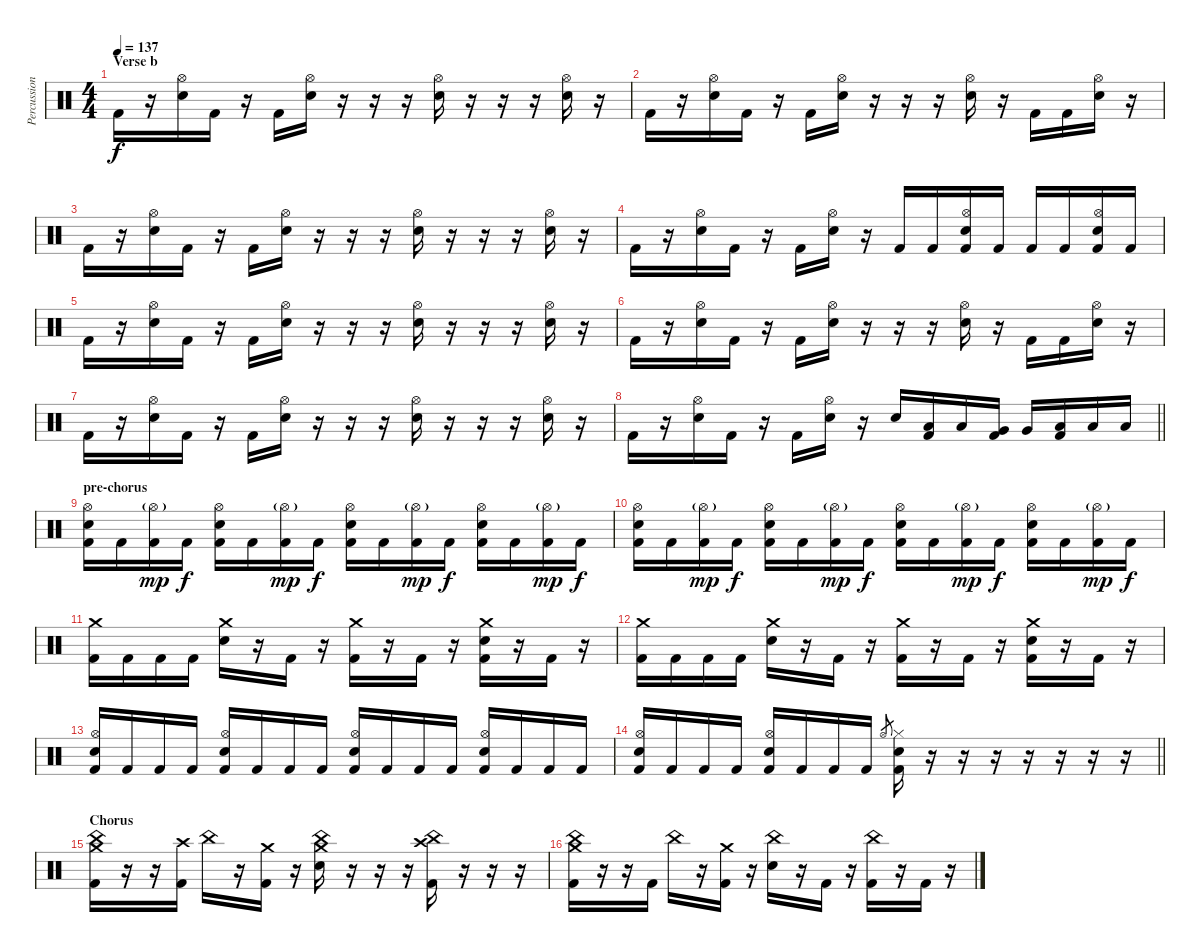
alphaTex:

\track ("Percussion" "Percussion") {instrument percussion}
\staff {score}
\articulation defaults
\ts (4 4)
\section ("" "Verse b")
\tempo 137
\clef neutral
\ks c "Kick (hit) 2".16{dy f}
r.16 ("Hi-Hat (open)" "Electric Snare (hit)").16 "Kick (hit) 2".16 r.16 "Kick (hit) 2".16 ("Hi-Hat (open)" "Electric Snare (hit)").16 r.16 r.16 r.16 ("Hi-Hat (open)" "Electric Snare (hit)").16 r.16 r.16 r.16 ("Hi-Hat (open)" "Electric Snare (hit)").16 r.16 |
"Kick (hit) 2".16 r.16 ("Hi-Hat (open)" "Electric Snare (hit)").16 "Kick (hit) 2".16 r.16 "Kick (hit) 2".16 ("Hi-Hat (open)" "Electric Snare (hit)").16 r.16 r.16 r.16 ("Hi-Hat (open)" "Electric Snare (hit)").16 r.16 "Kick (hit) 2".16 "Kick (hit) 2".16 ("Hi-Hat (open)" "Electric Snare (hit)").16 r.16 |
"Kick (hit) 2".16 r.16 ("Hi-Hat (open)" "Electric Snare (hit)").16 "Kick (hit) 2".16 r.16 "Kick (hit) 2".16 ("Hi-Hat (open)" "Electric Snare (hit)").16 r.16 r.16 r.16 ("Hi-Hat (open)" "Electric Snare (hit)").16 r.16 r.16 r.16 ("Hi-Hat (open)" "Electric Snare (hit)").16 r.16 |
"Kick (hit) 2".16 r.16 ("Hi-Hat (open)" "Electric Snare (hit)").16 "Kick (hit) 2".16 r.16 "Kick (hit) 2".16 ("Hi-Hat (open)" "Electric Snare (hit)").16 r.16 "Kick (hit) 2".16 "Kick (hit) 2".16 ("Hi-Hat (open)" "Electric Snare (hit)" "Kick (hit) 2").16 "Kick (hit) 2".16 "Kick (hit) 2".16 "Kick (hit) 2".16 ("Hi-Hat (open)" "Electric Snare (hit)" "Kick (hit) 2").16 "Kick (hit) 2".16 |
"Kick (hit) 2".16 r.16 ("Hi-Hat (open)" "Electric Snare (hit)").16 "Kick (hit) 2".16 r.16 "Kick (hit) 2".16 ("Hi-Hat (open)" "Electric Snare (hit)").16 r.16 r.16 r.16 ("Hi-Hat (open)" "Electric Snare (hit)").16 r.16 r.16 r.16 ("Hi-Hat (open)" "Electric Snare (hit)").16 r.16 |
"Kick (hit) 2".16 r.16 ("Hi-Hat (open)" "Electric Snare (hit)").16 "Kick (hit) 2".16 r.16 "Kick (hit) 2".16 ("Hi-Hat (open)" "Electric Snare (hit)").16 r.16 r.16 r.16 ("Hi-Hat (open)" "Electric Snare (hit)").16 r.16 "Kick (hit) 2".16 "Kick (hit) 2".16 ("Hi-Hat (open)" "Electric Snare (hit)").16 r.16 |
"Kick (hit) 2".16 r.16 ("Hi-Hat (open)" "Electric Snare (hit)").16 "Kick (hit) 2".16 r.16 "Kick (hit) 2".16 ("Hi-Hat (open)" "Electric Snare (hit)").16 r.16 r.16 r.16 ("Hi-Hat (open)" "Electric Snare (hit)").16 r.16 r.16 r.16 ("Hi-Hat (open)" "Electric Snare (hit)").16 r.16 |
\barLineRight lightlight "Kick (hit) 2".16
r.16 ("Hi-Hat (open)" "Electric Snare (hit)").16 "Kick (hit) 2".16 r.16 "Kick (hit) 2".16 ("Hi-Hat (open)" "Electric Snare (hit)").16 r.16 "Electric Snare (hit)".16 ("Low Tom (hit)" "Kick (hit) 2").16 "Low Tom (hit)".16 ("Very Low Tom (hit)" "Kick (hit) 2").16 "Very Low Tom (hit)".16 ("Low Floor Tom (hit)" "Kick (hit) 2").16 "Low Floor Tom (hit)".16 "Low Floor Tom (hit)".16 |
\section ("" "pre-chorus")
("Hi-Hat (open)" "Electric Snare (hit)" "Kick (hit) 2").16 "Kick (hit) 2".16 ("Hi-Hat (open)"{g} "Kick (hit) 2").16{dy mp} "Kick (hit) 2".16{dy f} ("Hi-Hat (open)" "Electric Snare (hit)" "Kick (hit) 2").16 "Kick (hit) 2".16 ("Hi-Hat (open)"{g} "Kick (hit) 2").16{dy mp} "Kick (hit) 2".16{dy f} ("Hi-Hat (open)" "Electric Snare (hit)" "Kick (hit) 2").16 "Kick (hit) 2".16 ("Hi-Hat (open)"{g} "Kick (hit) 2").16{dy mp} "Kick (hit) 2".16{dy f} ("Hi-Hat (open)" "Electric Snare (hit)" "Kick (hit) 2").16 "Kick (hit) 2".16 ("Hi-Hat (open)"{g} "Kick (hit) 2").16{dy mp} "Kick (hit) 2".16{dy f} |
("Hi-Hat (open)" "Electric Snare (hit)" "Kick (hit) 2").16 "Kick (hit) 2".16 ("Hi-Hat (open)"{g} "Kick (hit) 2").16{dy mp} "Kick (hit) 2".16{dy f} ("Hi-Hat (open)" "Electric Snare (hit)" "Kick (hit) 2").16 "Kick (hit) 2".16 ("Hi-Hat (open)"{g} "Kick (hit) 2").16{dy mp} "Kick (hit) 2".16{dy f} ("Hi-Hat (open)" "Electric Snare (hit)" "Kick (hit) 2").16 "Kick (hit) 2".16 ("Hi-Hat (open)"{g} "Kick (hit) 2").16{dy mp} "Kick (hit) 2".16{dy f} ("Hi-Hat (open)" "Electric Snare (hit)" "Kick (hit) 2").16 "Kick (hit) 2".16 ("Hi-Hat (open)"{g} "Kick (hit) 2").16{dy mp} "Kick (hit) 2".16{dy f} |
("Crash medium (hit)" "Kick (hit) 2").16 "Kick (hit) 2".16 "Kick (hit) 2".16 "Kick (hit) 2".16 ("Crash medium (hit)" "Electric Snare (hit)").16 r.16 "Kick (hit) 2".16 r.16 ("Crash medium (hit)" "Kick (hit) 2").16 r.16 "Kick (hit) 2".16 r.16 ("Crash medium (hit)" "Electric Snare (hit)" "Kick (hit) 2").16 r.16 "Kick (hit) 2".16 r.16 |
("Crash medium (hit)" "Kick (hit) 2").16 "Kick (hit) 2".16 "Kick (hit) 2".16 "Kick (hit) 2".16 ("Crash medium (hit)" "Electric Snare (hit)").16 r.16 "Kick (hit) 2".16 r.16 ("Crash medium (hit)" "Kick (hit) 2").16 r.16 "Kick (hit) 2".16 r.16 ("Crash medium (hit)" "Electric Snare (hit)" "Kick (hit) 2").16 r.16 "Kick (hit) 2".16 r.16 |
("Hi-Hat (open)" "Electric Snare (hit)" "Kick (hit) 2").16 "Kick (hit) 2".16 "Kick (hit) 2".16 "Kick (hit) 2".16 ("Hi-Hat (open)" "Electric Snare (hit)" "Kick (hit) 2").16 "Kick (hit) 2".16 "Kick (hit) 2".16 "Kick (hit) 2".16 ("Hi-Hat (open)" "Electric Snare (hit)" "Kick (hit) 2").16 "Kick (hit) 2".16 "Kick (hit) 2".16 "Kick (hit) 2".16 ("Hi-Hat (open)" "Electric Snare (hit)" "Kick (hit) 2").16 "Kick (hit) 2".16 "Kick (hit) 2".16 "Kick (hit) 2".16 |
\barLineRight lightlight
("Hi-Hat (open)" "Electric Snare (hit)" "Kick (hit) 2").16 "Kick (hit) 2".16 "Kick (hit) 2".16 "Kick (hit) 2".16 ("Hi-Hat (open)" "Electric Snare (hit)" "Kick (hit) 2").16 "Kick (hit) 2".16 "Kick (hit) 2".16 "Kick (hit) 2".16 "Hi-Hat (open)".8{gr} ("Hi-Hat (closed)" "Electric Snare (hit)" "Kick (hit) 2").16 r.16 r.16 r.16 r.16 r.16 r.16 r.16 |
\section ("" "Chorus")
("China (hit)" "Crash medium (hit)" "Kick (hit) 2").16 r.16 r.16 ("Crash high (hit)" "Kick (hit) 2").16 "China (hit)".16 r.16 ("Crash medium (hit)" "Kick (hit) 2").16 r.16 ("China (hit)" "Crash medium (hit)" "Electric Snare (hit)").16 r.16 r.16 r.16 ("China (hit)" "Crash high (hit)" "Kick (hit) 2").16 r.16 r.16 r.16 |
("China (hit)" "Crash medium (hit)" "Kick (hit) 2").16 r.16 r.16 "Kick (hit) 2".16 "China (hit)".16 r.16 ("Crash medium (hit)" "Kick (hit) 2").16 r.16 ("China (hit)" "Electric Snare (hit)").16 r.16 "Kick (hit) 2".16 r.16 ("China (hit)" "Kick (hit) 2").16 r.16 "Kick (hit) 2".16 r.16
